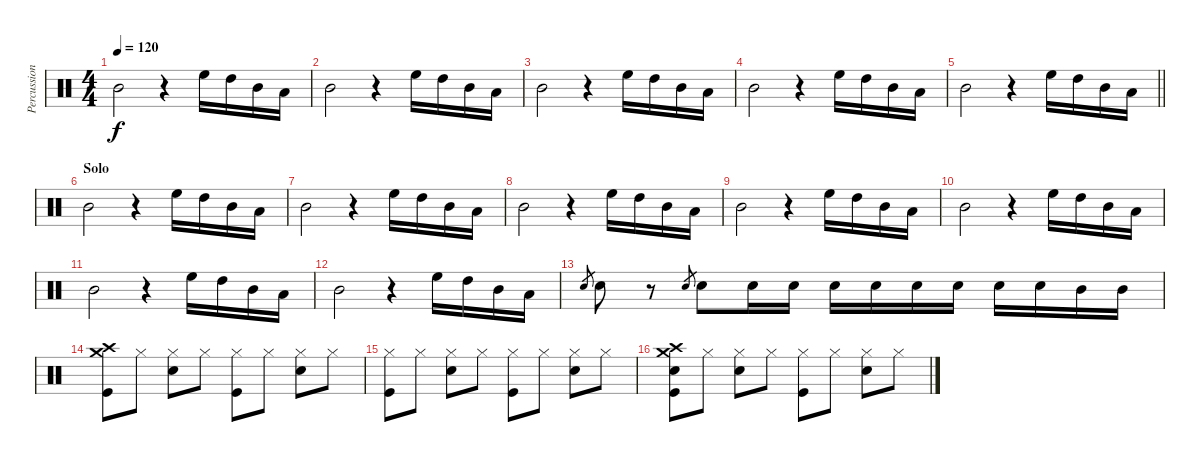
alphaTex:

\track ("Percussion" "Percussion") {instrument percussion}
\staff {score}
\articulation defaults
\ts (4 4)
\tempo 120
\clef neutral
\ks c "Mid Tom (hit)".2{dy f}
r.4 "High Floor Tom (hit)".16 "High Tom (hit)".16 "Mid Tom (hit)".16 "Low Tom (hit)".16 |
"Mid Tom (hit)".2 r.4 "High Floor Tom (hit)".16 "High Tom (hit)".16 "Mid Tom (hit)".16 "Low Tom (hit)".16 |
"Mid Tom (hit)".2 r.4 "High Floor Tom (hit)".16 "High Tom (hit)".16 "Mid Tom (hit)".16 "Low Tom (hit)".16 |
"Mid Tom (hit)".2 r.4 "High Floor Tom (hit)".16 "High Tom (hit)".16 "Mid Tom (hit)".16 "Low Tom (hit)".16 |
\barLineRight lightlight "Mid Tom (hit)".2
r.4 "High Floor Tom (hit)".16 "High Tom (hit)".16 "Mid Tom (hit)".16 "Low Tom (hit)".16 |
\section ("" "Solo")
"Mid Tom (hit)".2 r.4 "High Floor Tom (hit)".16 "High Tom (hit)".16 "Mid Tom (hit)".16 "Low Tom (hit)".16 |
"Mid Tom (hit)".2 r.4 "High Floor Tom (hit)".16 "High Tom (hit)".16 "Mid Tom (hit)".16 "Low Tom (hit)".16 |
"Mid Tom (hit)".2 r.4 "High Floor Tom (hit)".16 "High Tom (hit)".16 "Mid Tom (hit)".16 "Low Tom (hit)".16 |
"Mid Tom (hit)".2 r.4 "High Floor Tom (hit)".16 "High Tom (hit)".16 "Mid Tom (hit)".16 "Low Tom (hit)".16 |
"Mid Tom (hit)".2 r.4 "High Floor Tom (hit)".16 "High Tom (hit)".16 "Mid Tom (hit)".16 "Low Tom (hit)".16 |
"Mid Tom (hit)".2 r.4 "High Floor Tom (hit)".16 "High Tom (hit)".16 "Mid Tom (hit)".16 "Low Tom (hit)".16 |
"Mid Tom (hit)".2 r.4 "High Floor Tom (hit)".16 "High Tom (hit)".16 "Mid Tom (hit)".16 "Low Tom (hit)".16 |
"Snare (hit) 2".8{gr} "Snare (hit) 2".8 r.8 "Snare (hit) 2".8{gr} "Snare (hit) 2".8 "Snare (hit) 2".16 "Snare (hit) 2".16 "Snare (hit) 2".16 "Snare (hit) 2".16 "Snare (hit) 2".16 "Snare (hit) 2".16 "Snare (hit) 2".16 "Snare (hit) 2".16 "Mid Tom (hit)".16 "Mid Tom (hit)".16 |
("Crash high (hit)" "Kick (hit)" "Crash medium (hit)").8 "Hi-Hat (closed)".8 ("Hi-Hat (closed)" "Snare (hit) 2").8 "Hi-Hat (closed)".8 ("Hi-Hat (closed)" "Kick (hit)").8 "Hi-Hat (closed)".8 ("Hi-Hat (closed)" "Snare (hit) 2").8 "Hi-Hat (closed)".8 |
("Hi-Hat (closed)" "Kick (hit)").8 "Hi-Hat (closed)".8 ("Hi-Hat (closed)" "Snare (hit) 2").8 "Hi-Hat (closed)".8 ("Hi-Hat (closed)" "Kick (hit)").8 "Hi-Hat (closed)".8 ("Hi-Hat (closed)" "Snare (hit) 2").8 "Hi-Hat (closed)".8 |
("Crash high (hit)" "Kick (hit)" "Crash medium (hit)" "Snare (hit) 2").8 "Hi-Hat (closed)".8 ("Hi-Hat (closed)" "Snare (hit) 2").8 "Hi-Hat (closed)".8 ("Hi-Hat (closed)" "Kick (hit)").8 "Hi-Hat (closed)".8 ("Hi-Hat (closed)" "Snare (hit) 2").8 "Hi-Hat (closed)".8
